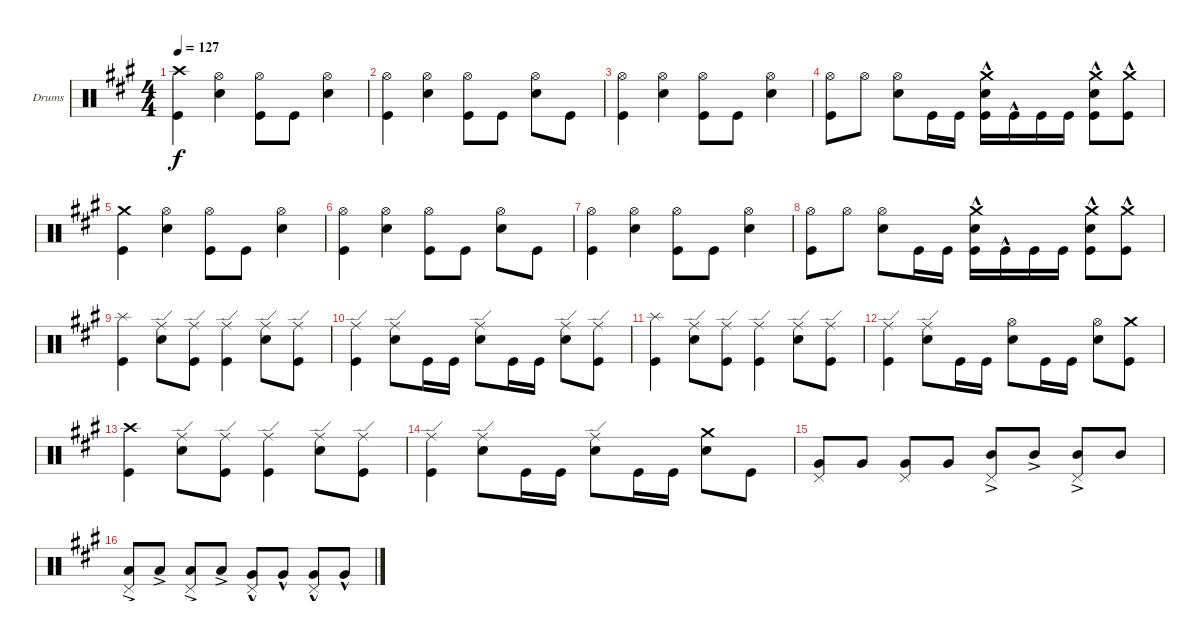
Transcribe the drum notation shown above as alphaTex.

\bracketExtendMode groupsimilarinstruments
\firstSystemTrackNameOrientation horizontal
\otherSystemsTrackNameOrientation horizontal
\track ("Drumkit" "Drums") {instrument percussion}
\staff {score}
\articulation defaults
\ts (4 4)
\tempo 127
\clef neutral
\ks f#minor
("Kick (hit)" "Crash high (hit)").4{dy f} ("Hi-Hat (open)" "Snare (hit) 2").4 ("Hi-Hat (open)" "Kick (hit)").8 "Kick (hit)".8 ("Hi-Hat (open)" "Snare (hit) 2").4 |
("Hi-Hat (open)" "Kick (hit)").4 ("Hi-Hat (open)" "Snare (hit) 2").4 ("Hi-Hat (open)" "Kick (hit)").8 "Kick (hit)".8 ("Hi-Hat (open)" "Snare (hit) 2").8 "Kick (hit)".8 |
("Hi-Hat (open)" "Kick (hit)").4 ("Hi-Hat (open)" "Snare (hit) 2").4 ("Hi-Hat (open)" "Kick (hit)").8 "Kick (hit)".8 ("Hi-Hat (open)" "Snare (hit) 2").4 |
("Hi-Hat (open)" "Kick (hit)").8 "Hi-Hat (open)".8 ("Hi-Hat (open)" "Snare (hit) 2").8 "Kick (hit)".16 "Kick (hit)".16 ("Snare (hit) 2" "Kick (hit)"{hac} "Crash medium (hit)").16 "Kick (hit)"{hac}.16 "Kick (hit)".16 "Kick (hit)".16 ("Snare (hit) 2" "Kick (hit)"{hac} "Crash medium (hit)").8 ("Kick (hit)"{hac} "Crash medium (hit)").8 |
("Crash medium (hit)" "Kick (hit)").4 ("Hi-Hat (open)" "Snare (hit) 2").4 ("Hi-Hat (open)" "Kick (hit)").8 "Kick (hit)".8 ("Hi-Hat (open)" "Snare (hit) 2").4 |
("Hi-Hat (open)" "Kick (hit)").4 ("Hi-Hat (open)" "Snare (hit) 2").4 ("Hi-Hat (open)" "Kick (hit)").8 "Kick (hit)".8 ("Hi-Hat (open)" "Snare (hit) 2").8 "Kick (hit)".8 |
("Hi-Hat (open)" "Kick (hit)").4 ("Hi-Hat (open)" "Snare (hit) 2").4 ("Hi-Hat (open)" "Kick (hit)").8 "Kick (hit)".8 ("Hi-Hat (open)" "Snare (hit) 2").4 |
("Hi-Hat (open)" "Kick (hit)").8 "Hi-Hat (open)".8 ("Hi-Hat (open)" "Snare (hit) 2").8 "Kick (hit)".16 "Kick (hit)".16 ("Snare (hit) 2" "Kick (hit)"{hac} "Crash medium (hit)").16 "Kick (hit)"{hac}.16 "Kick (hit)".16 "Kick (hit)".16 ("Snare (hit) 2" "Kick (hit)"{hac} "Crash medium (hit)").8 ("Kick (hit)"{hac} "Crash medium (hit)").8 |
("Kick (hit)" "Splash (hit)").4 ("Ride (edge)" "Snare (hit) 2").8 ("Ride (edge)" "Kick (hit)").8 ("Kick (hit)" "Ride (edge)").4 ("Ride (edge)" "Snare (hit) 2").8 ("Ride (edge)" "Kick (hit)").8 |
("Kick (hit)" "Ride (edge)").4 ("Ride (edge)" "Snare (hit) 2").8 "Kick (hit)".16 "Kick (hit)".16 ("Snare (hit) 2" "Ride (edge)").8 "Kick (hit)".16 "Kick (hit)".16 ("Snare (hit) 2" "Ride (edge)").8 ("Kick (hit)" "Ride (edge)").8 |
("Kick (hit)" "Splash (hit)").4 ("Ride (edge)" "Snare (hit) 2").8 ("Ride (edge)" "Kick (hit)").8 ("Kick (hit)" "Ride (edge)").4 ("Ride (edge)" "Snare (hit) 2").8 ("Ride (edge)" "Kick (hit)").8 |
("Kick (hit)" "Ride (edge)").4 ("Ride (edge)" "Snare (hit) 2").8 "Kick (hit)".16 "Kick (hit)".16 ("Snare (hit) 2" "Hi-Hat (open)").8 "Kick (hit)".16 "Kick (hit)".16 ("Snare (hit) 2" "Hi-Hat (open)").8 ("Kick (hit)" "Crash medium (hit)").8 |
("Kick (hit)" "Crash high (hit)").4 ("Ride (edge)" "Snare (hit) 2").8 ("Ride (edge)" "Kick (hit)").8 ("Kick (hit)" "Ride (edge)").4 ("Ride (edge)" "Snare (hit) 2").8 ("Ride (edge)" "Kick (hit)").8 |
("Kick (hit)" "Ride (edge)").4 ("Ride (edge)" "Snare (hit) 2").8 "Kick (hit)".16 "Kick (hit)".16 ("Snare (hit) 2" "Ride (edge)").8 "Kick (hit)".16 "Kick (hit)".16 ("Snare (hit) 2" "Crash medium (hit)").8 "Kick (hit)".8 |
("Pedal Hi-Hat (hit)" "Very Low Tom (hit)").8 "Very Low Tom (hit)".8 ("Pedal Hi-Hat (hit)" "Very Low Tom (hit)").8 "Very Low Tom (hit)".8 ("Pedal Hi-Hat (hit)" "Mid Tom (hit)"{ac}).8 "Mid Tom (hit)"{ac}.8 ("Pedal Hi-Hat (hit)" "Mid Tom (hit)"{ac}).8 "Mid Tom (hit)".8 |
("Pedal Hi-Hat (hit)" "Low Tom (hit)"{ac}).8 "Low Tom (hit)"{ac}.8 ("Pedal Hi-Hat (hit)" "Low Tom (hit)"{ac}).8 "Low Tom (hit)"{ac}.8 ("Pedal Hi-Hat (hit)" "Very Low Tom (hit)"{hac}).8 "Very Low Tom (hit)"{hac}.8 ("Pedal Hi-Hat (hit)" "Very Low Tom (hit)"{hac}).8 "Very Low Tom (hit)"{hac}.8
